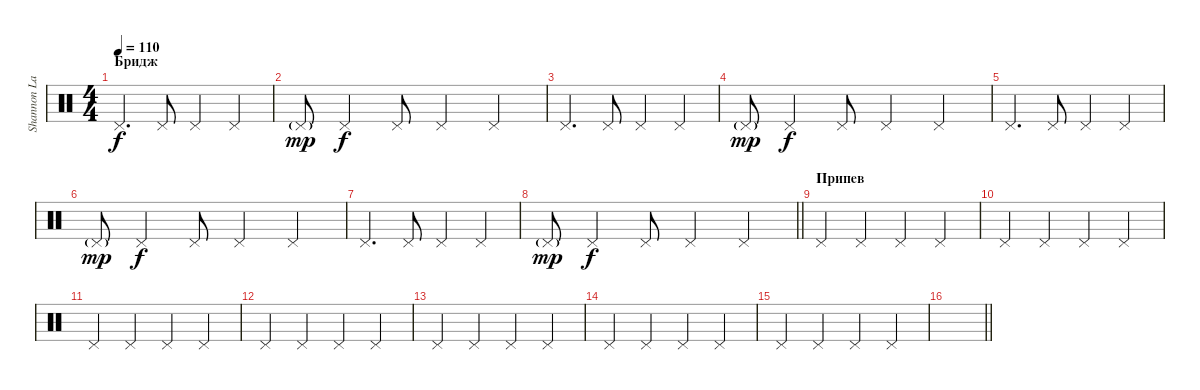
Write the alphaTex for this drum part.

\track ("Shannon Larkin [Percussion 3]" "Shannon La") {instrument percussion}
\staff {score}
\articulation defaults
\ts (4 4)
\section ("" "Бридж")
\tempo 110
\clef neutral
\ks c "Pedal Hi-Hat (hit)".4{d dy f} "Pedal Hi-Hat (hit)".8 "Pedal Hi-Hat (hit)".4 "Pedal Hi-Hat (hit)".4
|
"Pedal Hi-Hat (hit)"{g}.8{dy mp} "Pedal Hi-Hat (hit)".4{dy f} "Pedal Hi-Hat (hit)".8 "Pedal Hi-Hat (hit)".4 "Pedal Hi-Hat (hit)".4 |
"Pedal Hi-Hat (hit)".4{d} "Pedal Hi-Hat (hit)".8 "Pedal Hi-Hat (hit)".4 "Pedal Hi-Hat (hit)".4 |
"Pedal Hi-Hat (hit)"{g}.8{dy mp} "Pedal Hi-Hat (hit)".4{dy f} "Pedal Hi-Hat (hit)".8 "Pedal Hi-Hat (hit)".4 "Pedal Hi-Hat (hit)".4 |
"Pedal Hi-Hat (hit)".4{d} "Pedal Hi-Hat (hit)".8 "Pedal Hi-Hat (hit)".4 "Pedal Hi-Hat (hit)".4 |
"Pedal Hi-Hat (hit)"{g}.8{dy mp} "Pedal Hi-Hat (hit)".4{dy f} "Pedal Hi-Hat (hit)".8 "Pedal Hi-Hat (hit)".4 "Pedal Hi-Hat (hit)".4 |
"Pedal Hi-Hat (hit)".4{d} "Pedal Hi-Hat (hit)".8 "Pedal Hi-Hat (hit)".4 "Pedal Hi-Hat (hit)".4 |
\barLineRight lightlight "Pedal Hi-Hat (hit)"{g}.8{dy mp} "Pedal Hi-Hat (hit)".4{dy f} "Pedal Hi-Hat (hit)".8 "Pedal Hi-Hat (hit)".4 "Pedal Hi-Hat (hit)".4
|
\section ("" "Припев")
"Pedal Hi-Hat (hit)".4 "Pedal Hi-Hat (hit)".4 "Pedal Hi-Hat (hit)".4 "Pedal Hi-Hat (hit)".4 |
"Pedal Hi-Hat (hit)".4 "Pedal Hi-Hat (hit)".4 "Pedal Hi-Hat (hit)".4 "Pedal Hi-Hat (hit)".4 |
"Pedal Hi-Hat (hit)".4 "Pedal Hi-Hat (hit)".4 "Pedal Hi-Hat (hit)".4 "Pedal Hi-Hat (hit)".4 |
"Pedal Hi-Hat (hit)".4 "Pedal Hi-Hat (hit)".4 "Pedal Hi-Hat (hit)".4 "Pedal Hi-Hat (hit)".4 |
"Pedal Hi-Hat (hit)".4 "Pedal Hi-Hat (hit)".4 "Pedal Hi-Hat (hit)".4 "Pedal Hi-Hat (hit)".4 |
"Pedal Hi-Hat (hit)".4 "Pedal Hi-Hat (hit)".4 "Pedal Hi-Hat (hit)".4 "Pedal Hi-Hat (hit)".4 |
"Pedal Hi-Hat (hit)".4 "Pedal Hi-Hat (hit)".4 "Pedal Hi-Hat (hit)".4 "Pedal Hi-Hat (hit)".4 |
\barLineRight lightlight
